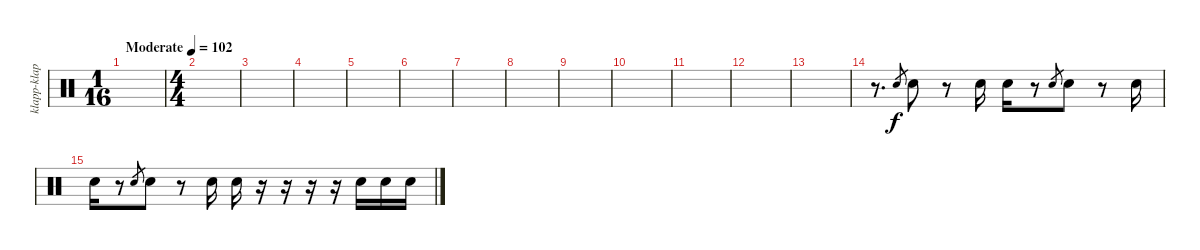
\track ("klapp-klapp" "klapp-klap") {instrument percussion}
\staff {score}
\articulation defaults
\ts (1 16)
\tempo (102 "Moderate")
\clef neutral
\ks c
|
\ts (4 4)
|
|
|
|
|
|
|
|
|
|
|
|
r.8{d} "Hand Clap (hit)".8{gr} "Hand Clap (hit)".8 r.8 "Hand Clap (hit)".16 "Hand Clap (hit)".16 r.8 "Hand Clap (hit)".8{gr} "Hand Clap (hit)".8 r.8 "Hand Clap (hit)".16 |
"Hand Clap (hit)".16 r.8 "Hand Clap (hit)".8{gr} "Hand Clap (hit)".8 r.8 "Hand Clap (hit)".16 "Hand Clap (hit)".16 r.16 r.16 r.16 r.16 "Hand Clap (hit)".16 "Hand Clap (hit)".16 "Hand Clap (hit)".16
